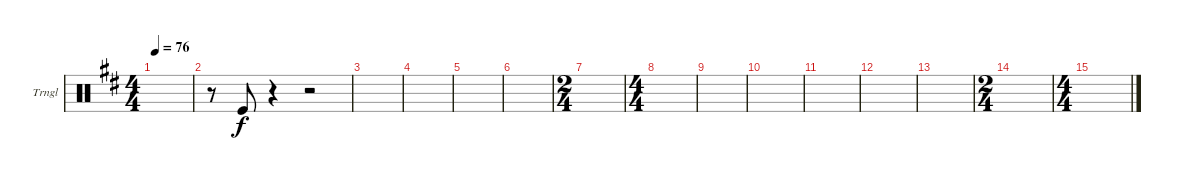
\defaultSystemsLayout 4
\bracketExtendMode groupsimilarinstruments
\firstSystemTrackNameOrientation horizontal
\otherSystemsTrackNameOrientation horizontal
\track ("Temple Bells (Collins)" "Trngl") {instrument percussion}
\staff {score}
\articulation defaults
\ts (4 4)
\scale
0.5
\tempo 76
\accidentals auto
\clef neutral
\ottava regular
\simile none
\ks d
|
\scale
0.5 r.8 "Kick (hit)".8 r.4 r.2 |
\scale
0.5 |
\scale
0.5 |
\scale
0.434211 |
\scale
0.565789 |
\ts (2 4)
\scale
0.517143 |
\ts (4 4)
\scale
0.482857 |
\scale
0.5 |
\scale
0.5 |
\scale
0.561644 |
\scale
0.438356 |
\scale
0.408551 |
\ts (2 4)
\scale
0.591449 |
\ts (4 4)
\scale
0.561462 |
\scale
0.438538
